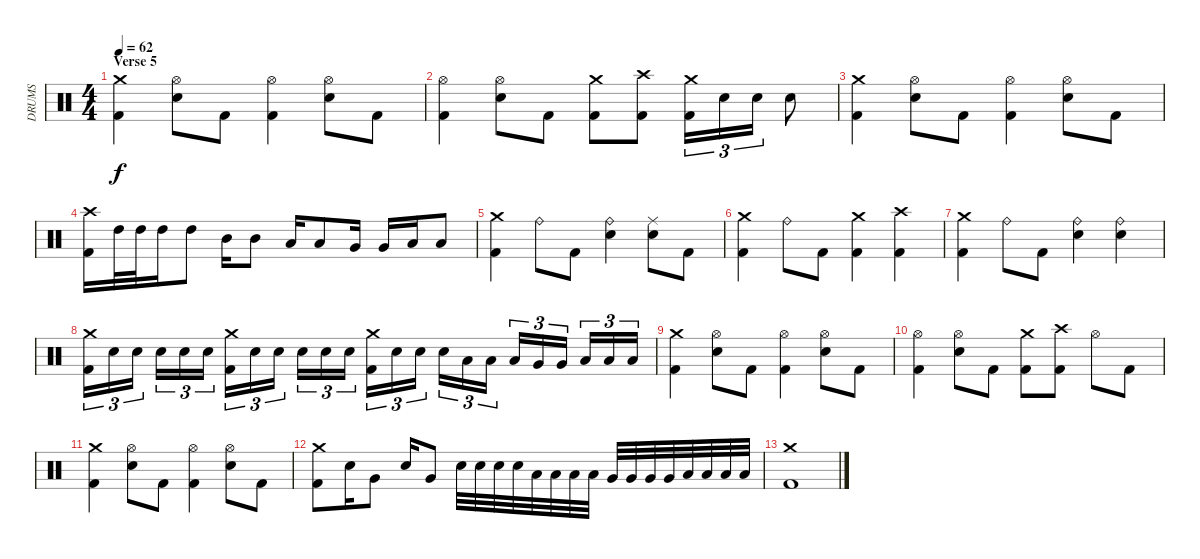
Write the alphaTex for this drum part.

\track ("DRUMS" "DRUMS") {instrument percussion}
\staff {score}
\articulation defaults
\ts (4 4)
\section ("" "Verse 5")
\tempo 62
\clef neutral
\ks c
("Crash medium (hit)" "Kick (hit) 2").4{dy f} ("Hi-Hat (open)" "Snare (hit) 2").8 "Kick (hit) 2".8 ("Hi-Hat (open)" "Kick (hit) 2").4 ("Hi-Hat (open)" "Snare (hit) 2").8 "Kick (hit) 2".8 |
("Hi-Hat (open)" "Kick (hit) 2").4 ("Hi-Hat (open)" "Snare (hit) 2").8 "Kick (hit) 2".8 ("Crash medium (hit)" "Kick (hit) 2").8 ("Crash high (hit)" "Kick (hit) 2").8 ("Crash medium (hit)" "Kick (hit) 2").16{tu (3 2)} "Snare (hit) 2".16{tu (3 2)} "Snare (hit) 2".16{tu (3 2)} "Snare (hit) 2".8 |
("Crash medium (hit)" "Kick (hit) 2").4 ("Hi-Hat (open)" "Snare (hit) 2").8 "Kick (hit) 2".8 ("Hi-Hat (open)" "Kick (hit) 2").4 ("Hi-Hat (open)" "Snare (hit) 2").8 "Kick (hit) 2".8 |
("Crash high (hit)" "Kick (hit) 2").16 "High Tom (hit)".32 "High Tom (hit)".32 "High Tom (hit)".16 "High Tom (hit)".8 "Mid Tom (hit)".16 "Mid Tom (hit)".8 "Low Tom (hit)".16 "Low Tom (hit)".8 "Very Low Tom (hit)".16 "Very Low Tom (hit)".16 "Low Floor Tom (hit)".16 "Low Floor Tom (hit)".8 |
("Crash medium (hit)" "Kick (hit) 2").4 "Ride (bell)".8 "Kick (hit) 2".8 ("Ride (bell)" "Snare (hit) 2").4 ("Ride (middle)" "Snare (hit) 2").8 "Kick (hit) 2".8 |
("Crash medium (hit)" "Kick (hit) 2").4 "Ride (bell)".8 "Kick (hit) 2".8 ("Crash medium (hit)" "Kick (hit) 2").4 ("Crash high (hit)" "Kick (hit) 2").4 |
("Crash medium (hit)" "Kick (hit) 2").4 "Ride (bell)".8 "Kick (hit) 2".8 ("Ride (bell)" "Snare (hit) 2").4 ("Ride (bell)" "Snare (hit) 2").4 |
("Crash medium (hit)" "Kick (hit) 2").16{tu (3 2)} "Snare (hit) 2".16{tu (3 2)} "Snare (hit) 2".16{tu (3 2) beam splitsecondary} "Snare (hit) 2".16{tu (3 2)} "Snare (hit) 2".16{tu (3 2)} "Snare (hit) 2".16{tu (3 2)} ("Crash medium (hit)" "Kick (hit) 2").16{tu (3 2)} "Snare (hit) 2".16{tu (3 2)} "Snare (hit) 2".16{tu (3 2) beam splitsecondary} "Snare (hit) 2".16{tu (3 2)} "Snare (hit) 2".16{tu (3 2)} "Snare (hit) 2".16{tu (3 2)} ("Crash medium (hit)" "Kick (hit) 2").16{tu (3 2)} "Snare (hit) 2".16{tu (3 2)} "Snare (hit) 2".16{tu (3 2) beam splitsecondary} "Snare (hit) 2".16{tu (3 2)} "Low Tom (hit)".16{tu (3 2)} "Low Tom (hit)".16{tu (3 2)} "Low Tom (hit)".16{tu (3 2)} "Very Low Tom (hit)".16{tu (3 2)} "Very Low Tom (hit)".16{tu (3 2) beam splitsecondary} "Low Floor Tom (hit)".16{tu (3 2)} "Low Floor Tom (hit)".16{tu (3 2)} "Low Floor Tom (hit)".16{tu (3 2)} |
("Crash medium (hit)" "Kick (hit) 2").4 ("Hi-Hat (open)" "Snare (hit) 2").8 "Kick (hit) 2".8 ("Hi-Hat (open)" "Kick (hit) 2").4 ("Hi-Hat (open)" "Snare (hit) 2").8 "Kick (hit) 2".8 |
("Hi-Hat (open)" "Kick (hit) 2").4 ("Hi-Hat (open)" "Snare (hit) 2").8 "Kick (hit) 2".8 ("Crash medium (hit)" "Kick (hit) 2").8 ("Crash high (hit)" "Kick (hit) 2").8 "Hi-Hat (open)".8 "Kick (hit) 2".8 |
("Crash medium (hit)" "Kick (hit) 2").4 ("Hi-Hat (open)" "Snare (hit) 2").8 "Kick (hit) 2".8 ("Hi-Hat (open)" "Kick (hit) 2").4 ("Hi-Hat (open)" "Snare (hit) 2").8 "Kick (hit) 2".8 |
("Crash medium (hit)" "Kick (hit) 2").8 "Snare (hit) 2".16 "Very Low Tom (hit)".8 "Snare (hit) 2".16 "Very Low Tom (hit)".8 "Snare (hit) 2".32 "Snare (hit) 2".32 "Snare (hit) 2".32 "Snare (hit) 2".32 "Low Tom (hit)".32 "Low Tom (hit)".32 "Low Tom (hit)".32 "Low Tom (hit)".32 "Very Low Tom (hit)".32 "Very Low Tom (hit)".32 "Very Low Tom (hit)".32 "Very Low Tom (hit)".32 "Low Floor Tom (hit)".32 "Low Floor Tom (hit)".32 "Low Floor Tom (hit)".32 "Low Floor Tom (hit)".32 |
("Crash medium (hit)" "Kick (hit) 2").1
